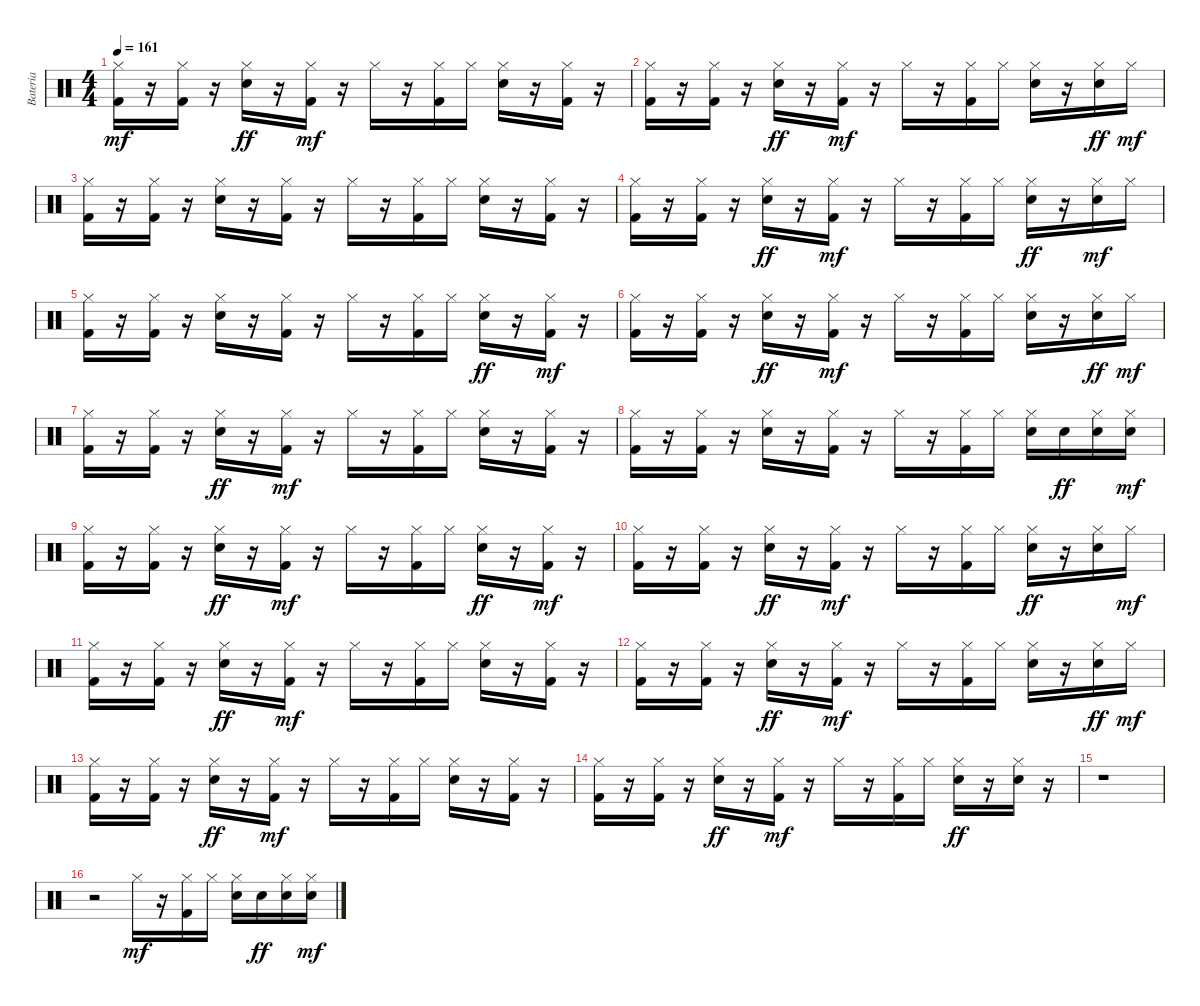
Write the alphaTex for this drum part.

\track ("Bateria" "Bateria") {instrument percussion}
\staff {score}
\articulation defaults
\ts (4 4)
\tempo 161
\clef neutral
\ks c
("Hi-Hat (closed)" "Kick (hit) 2").16{dy mf} r.16 ("Hi-Hat (closed)" "Kick (hit) 2").16 r.16 ("Hi-Hat (closed)" "Electric Snare (hit)").16{dy ff} r.16 ("Hi-Hat (closed)" "Kick (hit) 2").16{dy mf} r.16 "Hi-Hat (closed)".16 r.16 ("Kick (hit) 2" "Hi-Hat (closed)").16 "Hi-Hat (closed)".16 ("Electric Snare (hit)" "Hi-Hat (closed)").16 r.16 ("Hi-Hat (closed)" "Kick (hit) 2").16 r.16 |
("Kick (hit) 2" "Hi-Hat (closed)").16 r.16 ("Kick (hit) 2" "Hi-Hat (closed)").16 r.16 ("Hi-Hat (closed)" "Electric Snare (hit)").16{dy ff} r.16 ("Hi-Hat (closed)" "Kick (hit) 2").16{dy mf} r.16 "Hi-Hat (closed)".16 r.16 ("Kick (hit) 2" "Hi-Hat (closed)").16 "Hi-Hat (closed)".16 ("Electric Snare (hit)" "Hi-Hat (closed)").16 r.16 ("Hi-Hat (closed)" "Electric Snare (hit)").16{dy ff} "Hi-Hat (closed)".16{dy mf} |
("Hi-Hat (closed)" "Kick (hit) 2").16 r.16 ("Hi-Hat (closed)" "Kick (hit) 2").16 r.16 ("Electric Snare (hit)" "Hi-Hat (closed)").16 r.16 ("Kick (hit) 2" "Hi-Hat (closed)").16 r.16 "Hi-Hat (closed)".16 r.16 ("Hi-Hat (closed)" "Kick (hit) 2").16 "Hi-Hat (closed)".16 ("Electric Snare (hit)" "Hi-Hat (closed)").16 r.16 ("Kick (hit) 2" "Hi-Hat (closed)").16 r.16 |
("Kick (hit) 2" "Hi-Hat (closed)").16 r.16 ("Kick (hit) 2" "Hi-Hat (closed)").16 r.16 ("Hi-Hat (closed)" "Electric Snare (hit)").16{dy ff} r.16 ("Kick (hit) 2" "Hi-Hat (closed)").16{dy mf} r.16 "Hi-Hat (closed)".16 r.16 ("Hi-Hat (closed)" "Kick (hit) 2").16 "Hi-Hat (closed)".16 ("Hi-Hat (closed)" "Electric Snare (hit)").16{dy ff} r.16 ("Electric Snare (hit)" "Hi-Hat (closed)").16{dy mf} "Hi-Hat (closed)".16 |
("Hi-Hat (closed)" "Kick (hit) 2").16 r.16 ("Kick (hit) 2" "Hi-Hat (closed)").16 r.16 ("Electric Snare (hit)" "Hi-Hat (closed)").16 r.16 ("Hi-Hat (closed)" "Kick (hit) 2").16 r.16 "Hi-Hat (closed)".16 r.16 ("Kick (hit) 2" "Hi-Hat (closed)").16 "Hi-Hat (closed)".16 ("Hi-Hat (closed)" "Electric Snare (hit)").16{dy ff} r.16 ("Hi-Hat (closed)" "Kick (hit) 2").16{dy mf} r.16 |
("Hi-Hat (closed)" "Kick (hit) 2").16 r.16 ("Kick (hit) 2" "Hi-Hat (closed)").16 r.16 ("Hi-Hat (closed)" "Electric Snare (hit)").16{dy ff} r.16 ("Hi-Hat (closed)" "Kick (hit) 2").16{dy mf} r.16 "Hi-Hat (closed)".16 r.16 ("Kick (hit) 2" "Hi-Hat (closed)").16 "Hi-Hat (closed)".16 ("Electric Snare (hit)" "Hi-Hat (closed)").16 r.16 ("Hi-Hat (closed)" "Electric Snare (hit)").16{dy ff} "Hi-Hat (closed)".16{dy mf} |
("Kick (hit) 2" "Hi-Hat (closed)").16 r.16 ("Kick (hit) 2" "Hi-Hat (closed)").16 r.16 ("Hi-Hat (closed)" "Electric Snare (hit)").16{dy ff} r.16 ("Kick (hit) 2" "Hi-Hat (closed)").16{dy mf} r.16 "Hi-Hat (closed)".16 r.16 ("Kick (hit) 2" "Hi-Hat (closed)").16 "Hi-Hat (closed)".16 ("Electric Snare (hit)" "Hi-Hat (closed)").16 r.16 ("Kick (hit) 2" "Hi-Hat (closed)").16 r.16 |
("Hi-Hat (closed)" "Kick (hit) 2").16 r.16 ("Kick (hit) 2" "Hi-Hat (closed)").16 r.16 ("Electric Snare (hit)" "Hi-Hat (closed)").16 r.16 ("Kick (hit) 2" "Hi-Hat (closed)").16 r.16 "Hi-Hat (closed)".16 r.16 ("Hi-Hat (closed)" "Kick (hit) 2").16 "Hi-Hat (closed)".16 ("Electric Snare (hit)" "Hi-Hat (closed)").16 "Electric Snare (hit)".16{dy ff} ("Hi-Hat (closed)" "Electric Snare (hit)").16 ("Electric Snare (hit)" "Hi-Hat (closed)").16{dy mf} |
("Hi-Hat (closed)" "Kick (hit) 2").16 r.16 ("Hi-Hat (closed)" "Kick (hit) 2").16 r.16 ("Hi-Hat (closed)" "Electric Snare (hit)").16{dy ff} r.16 ("Hi-Hat (closed)" "Kick (hit) 2").16{dy mf} r.16 "Hi-Hat (closed)".16 r.16 ("Hi-Hat (closed)" "Kick (hit) 2").16 "Hi-Hat (closed)".16 ("Hi-Hat (closed)" "Electric Snare (hit)").16{dy ff} r.16 ("Hi-Hat (closed)" "Kick (hit) 2").16{dy mf} r.16 |
("Kick (hit) 2" "Hi-Hat (closed)").16 r.16 ("Kick (hit) 2" "Hi-Hat (closed)").16 r.16 ("Hi-Hat (closed)" "Electric Snare (hit)").16{dy ff} r.16 ("Kick (hit) 2" "Hi-Hat (closed)").16{dy mf} r.16 "Hi-Hat (closed)".16 r.16 ("Hi-Hat (closed)" "Kick (hit) 2").16 "Hi-Hat (closed)".16 ("Hi-Hat (closed)" "Electric Snare (hit)").16{dy ff} r.16 ("Hi-Hat (closed)" "Electric Snare (hit)").16 "Hi-Hat (closed)".16{dy mf} |
("Hi-Hat (closed)" "Kick (hit) 2").16 r.16 ("Hi-Hat (closed)" "Kick (hit) 2").16 r.16 ("Hi-Hat (closed)" "Electric Snare (hit)").16{dy ff} r.16 ("Hi-Hat (closed)" "Kick (hit) 2").16{dy mf} r.16 "Hi-Hat (closed)".16 r.16 ("Kick (hit) 2" "Hi-Hat (closed)").16 "Hi-Hat (closed)".16 ("Electric Snare (hit)" "Hi-Hat (closed)").16 r.16 ("Hi-Hat (closed)" "Kick (hit) 2").16 r.16 |
("Kick (hit) 2" "Hi-Hat (closed)").16 r.16 ("Hi-Hat (closed)" "Kick (hit) 2").16 r.16 ("Hi-Hat (closed)" "Electric Snare (hit)").16{dy ff} r.16 ("Hi-Hat (closed)" "Kick (hit) 2").16{dy mf} r.16 "Hi-Hat (closed)".16 r.16 ("Hi-Hat (closed)" "Kick (hit) 2").16 "Hi-Hat (closed)".16 ("Electric Snare (hit)" "Hi-Hat (closed)").16 r.16 ("Hi-Hat (closed)" "Electric Snare (hit)").16{dy ff} "Hi-Hat (closed)".16{dy mf} |
("Kick (hit) 2" "Hi-Hat (closed)").16 r.16 ("Kick (hit) 2" "Hi-Hat (closed)").16 r.16 ("Hi-Hat (closed)" "Electric Snare (hit)").16{dy ff} r.16 ("Hi-Hat (closed)" "Kick (hit) 2").16{dy mf} r.16 "Hi-Hat (closed)".16 r.16 ("Hi-Hat (closed)" "Kick (hit) 2").16 "Hi-Hat (closed)".16 ("Electric Snare (hit)" "Hi-Hat (closed)").16 r.16 ("Kick (hit) 2" "Hi-Hat (closed)").16 r.16 |
("Kick (hit) 2" "Hi-Hat (closed)").16 r.16 ("Kick (hit) 2" "Hi-Hat (closed)").16 r.16 ("Hi-Hat (closed)" "Electric Snare (hit)").16{dy ff} r.16 ("Kick (hit) 2" "Hi-Hat (closed)").16{dy mf} r.16 "Hi-Hat (closed)".16 r.16 ("Hi-Hat (closed)" "Kick (hit) 2").16 "Hi-Hat (closed)".16 ("Hi-Hat (closed)" "Electric Snare (hit)").16{dy ff} r.16 ("Hi-Hat (closed)" "Electric Snare (hit)").16 r.16 |
r.1 |
r.2 "Hi-Hat (closed)".16{dy mf} r.16 ("Hi-Hat (closed)" "Kick (hit) 2").16 "Hi-Hat (closed)".16 ("Electric Snare (hit)" "Hi-Hat (closed)").16 "Electric Snare (hit)".16{dy ff} ("Hi-Hat (closed)" "Electric Snare (hit)").16 ("Electric Snare (hit)" "Hi-Hat (closed)").16{dy mf}
